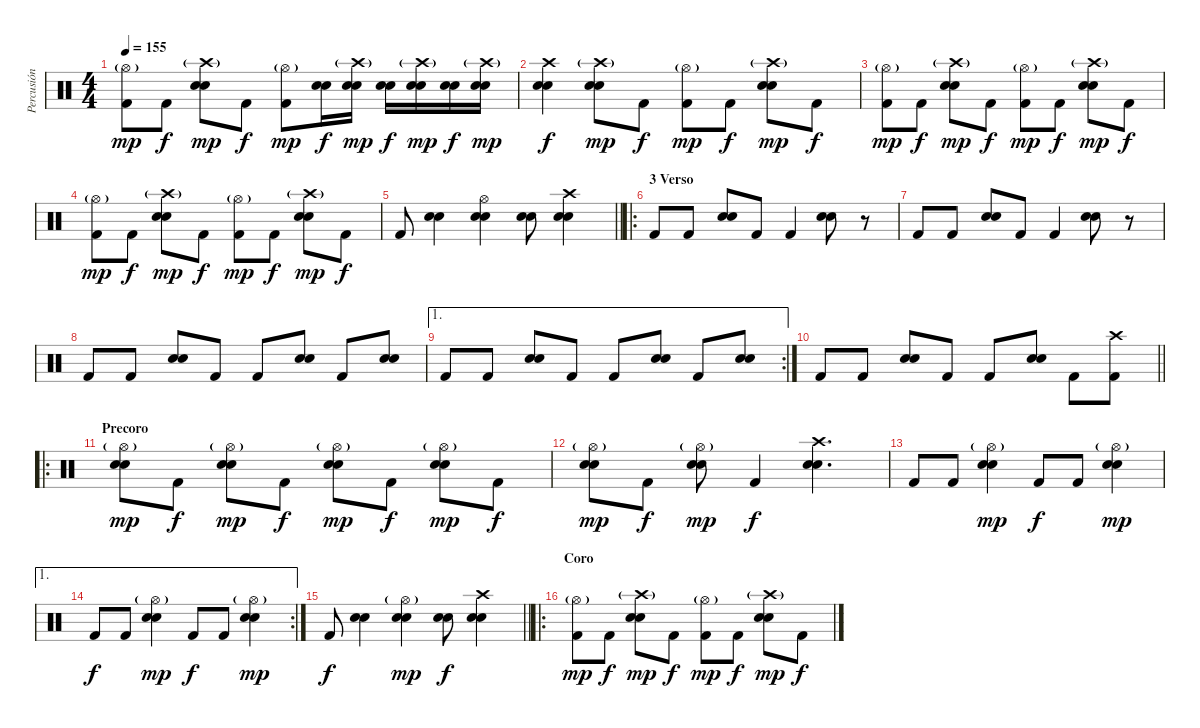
\track ("Percusión" "Percusión") {instrument percussion}
\staff {score}
\articulation defaults
\ts (4 4)
\tempo 155
\clef neutral
\ks c
("Hi-Hat (open)"{g} "Kick (hit) 2").8{dy mp} "Kick (hit) 2".8{dy f} ("Crash high (hit)"{g} "Snare (hit) 2" "Electric Snare (hit)").8{dy mp} "Kick (hit) 2".8{dy f} ("Hi-Hat (open)"{g} "Kick (hit) 2").8{dy mp} ("Snare (hit) 2" "Electric Snare (hit)").16{dy f} ("Crash high (hit)"{g} "Snare (hit) 2" "Electric Snare (hit)").16{dy mp} ("Snare (hit) 2" "Electric Snare (hit)").16{dy f} ("Crash high (hit)"{g} "Snare (hit) 2" "Electric Snare (hit)").16{dy mp} ("Snare (hit) 2" "Electric Snare (hit)").16{dy f} ("Crash high (hit)"{g} "Snare (hit) 2" "Electric Snare (hit)").16{dy mp} |
("Crash high (hit)" "Snare (hit) 2" "Electric Snare (hit)").4{dy f} ("Crash high (hit)"{g} "Snare (hit) 2" "Electric Snare (hit)").8{dy mp} "Kick (hit) 2".8{dy f} ("Hi-Hat (open)"{g} "Kick (hit) 2").8{dy mp} "Kick (hit) 2".8{dy f} ("Crash high (hit)"{g} "Snare (hit) 2" "Electric Snare (hit)").8{dy mp} "Kick (hit) 2".8{dy f} |
("Hi-Hat (open)"{g} "Kick (hit) 2").8{dy mp} "Kick (hit) 2".8{dy f} ("Crash high (hit)"{g} "Snare (hit) 2" "Electric Snare (hit)").8{dy mp} "Kick (hit) 2".8{dy f} ("Hi-Hat (open)"{g} "Kick (hit) 2").8{dy mp} "Kick (hit) 2".8{dy f} ("Crash high (hit)"{g} "Snare (hit) 2" "Electric Snare (hit)").8{dy mp} "Kick (hit) 2".8{dy f} |
("Hi-Hat (open)"{g} "Kick (hit) 2").8{dy mp} "Kick (hit) 2".8{dy f} ("Crash high (hit)"{g} "Snare (hit) 2" "Electric Snare (hit)").8{dy mp} "Kick (hit) 2".8{dy f} ("Hi-Hat (open)"{g} "Kick (hit) 2").8{dy mp} "Kick (hit) 2".8{dy f} ("Crash high (hit)"{g} "Snare (hit) 2" "Electric Snare (hit)").8{dy mp} "Kick (hit) 2".8{dy f} |
\barLineRight lightlight "Kick (hit) 2".8
("Snare (hit) 2" "Electric Snare (hit)").4 ("Hi-Hat (open)" "Snare (hit) 2" "Electric Snare (hit)").4 ("Snare (hit) 2" "Electric Snare (hit)").8 ("Crash high (hit)" "Snare (hit) 2" "Electric Snare (hit)").4 |
\ro
\section ("" "3 Verso")
"Kick (hit) 2".8 "Kick (hit) 2".8 ("Electric Snare (hit)" "Snare (hit) 2").8 "Kick (hit) 2".8 "Kick (hit) 2".4 ("Electric Snare (hit)" "Snare (hit) 2").8 r.8 |
"Kick (hit) 2".8 "Kick (hit) 2".8 ("Electric Snare (hit)" "Snare (hit) 2").8 "Kick (hit) 2".8 "Kick (hit) 2".4 ("Electric Snare (hit)" "Snare (hit) 2").8 r.8 |
"Kick (hit) 2".8 "Kick (hit) 2".8 ("Electric Snare (hit)" "Snare (hit) 2").8 "Kick (hit) 2".8 "Kick (hit) 2".8 ("Electric Snare (hit)" "Snare (hit) 2").8 "Kick (hit) 2".8 ("Electric Snare (hit)" "Snare (hit) 2").8 |
\ae 1
\rc 2 "Kick (hit) 2".8 "Kick (hit) 2".8
("Electric Snare (hit)" "Snare (hit) 2").8 "Kick (hit) 2".8 "Kick (hit) 2".8 ("Electric Snare (hit)" "Snare (hit) 2").8 "Kick (hit) 2".8 ("Electric Snare (hit)" "Snare (hit) 2").8 |
\barLineRight lightlight "Kick (hit) 2".8 "Kick (hit) 2".8
("Electric Snare (hit)" "Snare (hit) 2").8 "Kick (hit) 2".8 "Kick (hit) 2".8 ("Electric Snare (hit)" "Snare (hit) 2").8 "Kick (hit) 2".8 ("Kick (hit) 2" "Crash high (hit)").8 |
\ro
\section ("" "Precoro")
("Hi-Hat (open)"{g} "Snare (hit) 2" "Electric Snare (hit)").8{dy mp} "Kick (hit) 2".8{dy f} ("Hi-Hat (open)"{g} "Snare (hit) 2" "Electric Snare (hit)").8{dy mp} "Kick (hit) 2".8{dy f} ("Hi-Hat (open)"{g} "Snare (hit) 2" "Electric Snare (hit)").8{dy mp} "Kick (hit) 2".8{dy f} ("Hi-Hat (open)"{g} "Snare (hit) 2" "Electric Snare (hit)").8{dy mp} "Kick (hit) 2".8{dy f} |
("Hi-Hat (open)"{g} "Snare (hit) 2" "Electric Snare (hit)").8{dy mp} "Kick (hit) 2".8{dy f} ("Hi-Hat (open)"{g} "Snare (hit) 2" "Electric Snare (hit)").8{dy mp} "Kick (hit) 2".4{dy f} ("Crash high (hit)" "Snare (hit) 2" "Electric Snare (hit)").4{d} |
"Kick (hit) 2".8 "Kick (hit) 2".8 ("Hi-Hat (open)"{g} "Snare (hit) 2" "Electric Snare (hit)").4{dy mp} "Kick (hit) 2".8{dy f} "Kick (hit) 2".8 ("Hi-Hat (open)"{g} "Snare (hit) 2" "Electric Snare (hit)").4{dy mp} |
\ae 1
\rc 2 "Kick (hit) 2".8{dy f} "Kick (hit) 2".8
("Hi-Hat (open)"{g} "Snare (hit) 2" "Electric Snare (hit)").4{dy mp} "Kick (hit) 2".8{dy f} "Kick (hit) 2".8 ("Hi-Hat (open)"{g} "Snare (hit) 2" "Electric Snare (hit)").4{dy mp} |
\barLineRight lightlight "Kick (hit) 2".8{dy f}
("Snare (hit) 2" "Electric Snare (hit)").4 ("Hi-Hat (open)"{g} "Snare (hit) 2" "Electric Snare (hit)").4{dy mp} ("Snare (hit) 2" "Electric Snare (hit)").8{dy f} ("Crash high (hit)" "Snare (hit) 2" "Electric Snare (hit)").4 |
\ro
\section ("" "Coro")
("Hi-Hat (open)"{g} "Kick (hit) 2").8{dy mp} "Kick (hit) 2".8{dy f} ("Crash high (hit)"{g} "Snare (hit) 2" "Electric Snare (hit)").8{dy mp} "Kick (hit) 2".8{dy f} ("Hi-Hat (open)"{g} "Kick (hit) 2").8{dy mp} "Kick (hit) 2".8{dy f} ("Crash high (hit)"{g} "Snare (hit) 2" "Electric Snare (hit)").8{dy mp} "Kick (hit) 2".8{dy f}
